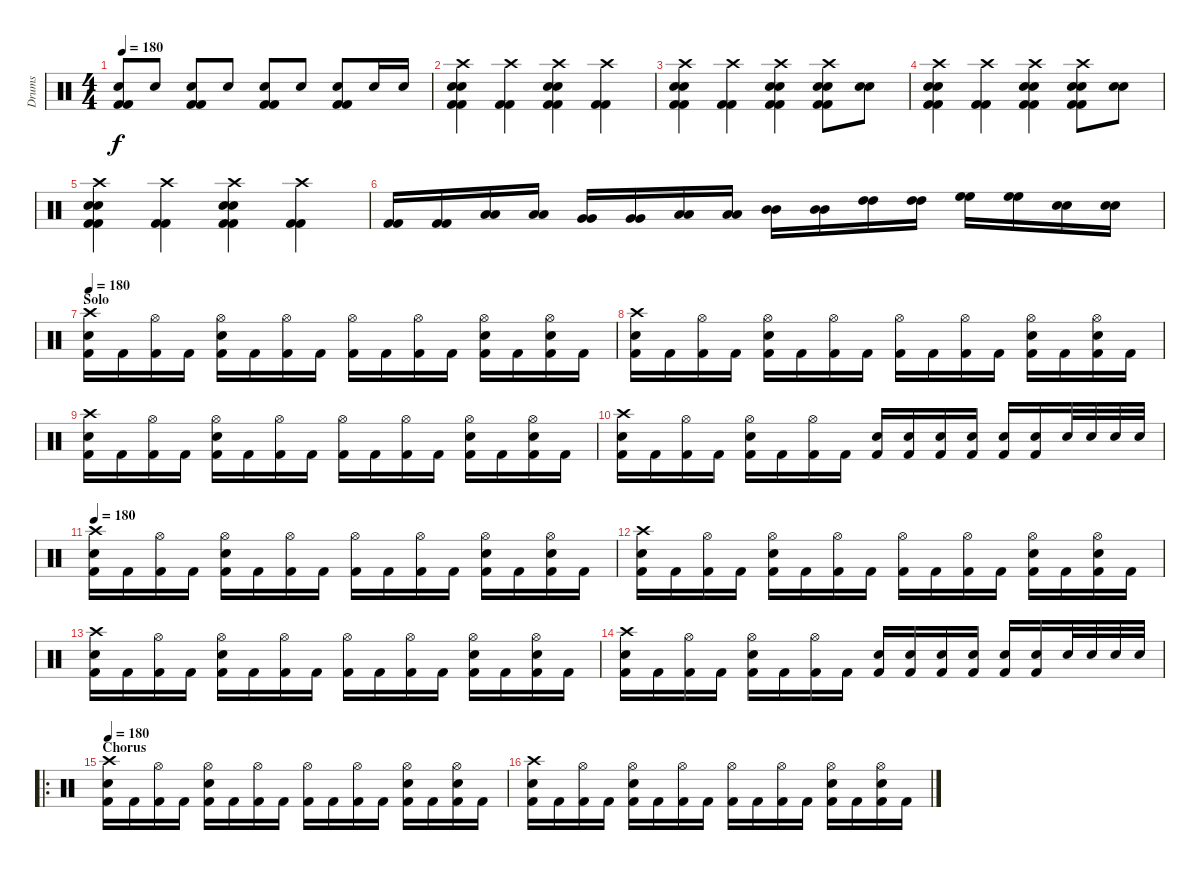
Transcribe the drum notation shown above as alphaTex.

\track ("Drums" "Drums") {instrument percussion}
\staff {score}
\articulation defaults
\ts (4 4)
\tempo 180
\clef neutral
\ks c
("Snare (hit) 2" "Kick (hit) 2" "Kick (hit) 2").8{dy f} "Snare (hit) 2".8 ("Snare (hit) 2" "Kick (hit) 2" "Kick (hit) 2").8 "Snare (hit) 2".8 ("Snare (hit) 2" "Kick (hit) 2" "Kick (hit) 2").8 "Snare (hit) 2".8 ("Snare (hit) 2" "Kick (hit) 2" "Kick (hit) 2").8 "Snare (hit) 2".16 "Snare (hit) 2".16 |
("Crash high (hit)" "Snare (hit) 2" "Snare (hit) 2" "Kick (hit) 2" "Kick (hit) 2").4 ("Crash high (hit)" "Kick (hit) 2" "Kick (hit) 2").4 ("Crash high (hit)" "Snare (hit) 2" "Snare (hit) 2" "Kick (hit) 2" "Kick (hit) 2").4 ("Crash high (hit)" "Kick (hit) 2" "Kick (hit) 2").4 |
("Crash high (hit)" "Snare (hit) 2" "Snare (hit) 2" "Kick (hit) 2" "Kick (hit) 2").4 ("Crash high (hit)" "Kick (hit) 2" "Kick (hit) 2").4 ("Crash high (hit)" "Snare (hit) 2" "Snare (hit) 2" "Kick (hit) 2" "Kick (hit) 2").4 ("Crash high (hit)" "Snare (hit) 2" "Snare (hit) 2" "Kick (hit) 2" "Kick (hit) 2").8 ("Snare (hit) 2" "Snare (hit) 2").8 |
("Crash high (hit)" "Snare (hit) 2" "Snare (hit) 2" "Kick (hit) 2" "Kick (hit) 2").4 ("Crash high (hit)" "Kick (hit) 2" "Kick (hit) 2").4 ("Crash high (hit)" "Snare (hit) 2" "Snare (hit) 2" "Kick (hit) 2" "Kick (hit) 2").4 ("Crash high (hit)" "Snare (hit) 2" "Snare (hit) 2" "Kick (hit) 2" "Kick (hit) 2").8 ("Snare (hit) 2" "Snare (hit) 2").8 |
("Crash high (hit)" "Snare (hit) 2" "Snare (hit) 2" "Kick (hit) 2" "Kick (hit) 2").4 ("Crash high (hit)" "Kick (hit) 2" "Kick (hit) 2").4 ("Crash high (hit)" "Snare (hit) 2" "Snare (hit) 2" "Kick (hit) 2" "Kick (hit) 2").4 ("Crash high (hit)" "Kick (hit) 2" "Kick (hit) 2").4 |
("Kick (hit) 2" "Kick (hit) 2").16 ("Kick (hit) 2" "Kick (hit) 2").16 ("Low Floor Tom (hit)" "Low Floor Tom (hit)").16 ("Low Floor Tom (hit)" "Low Floor Tom (hit)").16 ("Very Low Tom (hit)" "Very Low Tom (hit)").16 ("Very Low Tom (hit)" "Very Low Tom (hit)").16 ("Low Tom (hit)" "Low Tom (hit)").16 ("Low Tom (hit)" "Low Tom (hit)").16 ("Mid Tom (hit)" "Mid Tom (hit)").16 ("Mid Tom (hit)" "Mid Tom (hit)").16 ("High Tom (hit)" "High Tom (hit)").16 ("High Tom (hit)" "High Tom (hit)").16 ("High Floor Tom (hit)" "High Floor Tom (hit)").16 ("High Floor Tom (hit)" "High Floor Tom (hit)").16 ("Snare (hit) 2" "Snare (hit) 2").16 ("Snare (hit) 2" "Snare (hit) 2").16 |
\section ("" "Solo")
\tempo 180
("Crash high (hit)" "Snare (hit) 2" "Kick (hit) 2").16 "Kick (hit) 2".16 ("Hi-Hat (open)" "Kick (hit) 2").16 "Kick (hit) 2".16 ("Hi-Hat (open)" "Snare (hit) 2" "Kick (hit) 2").16 "Kick (hit) 2".16 ("Hi-Hat (open)" "Kick (hit) 2").16 "Kick (hit) 2".16 ("Hi-Hat (open)" "Kick (hit) 2").16 "Kick (hit) 2".16 ("Hi-Hat (open)" "Kick (hit) 2").16 "Kick (hit) 2".16 ("Hi-Hat (open)" "Snare (hit) 2" "Kick (hit) 2").16 "Kick (hit) 2".16 ("Hi-Hat (open)" "Snare (hit) 2" "Kick (hit) 2").16 "Kick (hit) 2".16 |
("Crash high (hit)" "Snare (hit) 2" "Kick (hit) 2").16 "Kick (hit) 2".16 ("Hi-Hat (open)" "Kick (hit) 2").16 "Kick (hit) 2".16 ("Hi-Hat (open)" "Snare (hit) 2" "Kick (hit) 2").16 "Kick (hit) 2".16 ("Hi-Hat (open)" "Kick (hit) 2").16 "Kick (hit) 2".16 ("Hi-Hat (open)" "Kick (hit) 2").16 "Kick (hit) 2".16 ("Hi-Hat (open)" "Kick (hit) 2").16 "Kick (hit) 2".16 ("Hi-Hat (open)" "Snare (hit) 2" "Kick (hit) 2").16 "Kick (hit) 2".16 ("Hi-Hat (open)" "Snare (hit) 2" "Kick (hit) 2").16 "Kick (hit) 2".16 |
("Crash high (hit)" "Snare (hit) 2" "Kick (hit) 2").16 "Kick (hit) 2".16 ("Hi-Hat (open)" "Kick (hit) 2").16 "Kick (hit) 2".16 ("Hi-Hat (open)" "Snare (hit) 2" "Kick (hit) 2").16 "Kick (hit) 2".16 ("Hi-Hat (open)" "Kick (hit) 2").16 "Kick (hit) 2".16 ("Hi-Hat (open)" "Kick (hit) 2").16 "Kick (hit) 2".16 ("Hi-Hat (open)" "Kick (hit) 2").16 "Kick (hit) 2".16 ("Hi-Hat (open)" "Snare (hit) 2" "Kick (hit) 2").16 "Kick (hit) 2".16 ("Hi-Hat (open)" "Snare (hit) 2" "Kick (hit) 2").16 "Kick (hit) 2".16 |
("Crash high (hit)" "Snare (hit) 2" "Kick (hit) 2").16 "Kick (hit) 2".16 ("Hi-Hat (open)" "Kick (hit) 2").16 "Kick (hit) 2".16 ("Hi-Hat (open)" "Snare (hit) 2" "Kick (hit) 2").16 "Kick (hit) 2".16 ("Hi-Hat (open)" "Kick (hit) 2").16 "Kick (hit) 2".16 ("Snare (hit) 2" "Kick (hit) 2").16 ("Snare (hit) 2" "Kick (hit) 2").16 ("Snare (hit) 2" "Kick (hit) 2").16 ("Snare (hit) 2" "Kick (hit) 2").16 ("Snare (hit) 2" "Kick (hit) 2").16 ("Snare (hit) 2" "Kick (hit) 2").16 "Snare (hit) 2".32 "Snare (hit) 2".32 "Snare (hit) 2".32 "Snare (hit) 2".32 |
\tempo 180
("Crash high (hit)" "Snare (hit) 2" "Kick (hit) 2").16 "Kick (hit) 2".16 ("Hi-Hat (open)" "Kick (hit) 2").16 "Kick (hit) 2".16 ("Hi-Hat (open)" "Snare (hit) 2" "Kick (hit) 2").16 "Kick (hit) 2".16 ("Hi-Hat (open)" "Kick (hit) 2").16 "Kick (hit) 2".16 ("Hi-Hat (open)" "Kick (hit) 2").16 "Kick (hit) 2".16 ("Hi-Hat (open)" "Kick (hit) 2").16 "Kick (hit) 2".16 ("Hi-Hat (open)" "Snare (hit) 2" "Kick (hit) 2").16 "Kick (hit) 2".16 ("Hi-Hat (open)" "Snare (hit) 2" "Kick (hit) 2").16 "Kick (hit) 2".16 |
("Crash high (hit)" "Snare (hit) 2" "Kick (hit) 2").16 "Kick (hit) 2".16 ("Hi-Hat (open)" "Kick (hit) 2").16 "Kick (hit) 2".16 ("Hi-Hat (open)" "Snare (hit) 2" "Kick (hit) 2").16 "Kick (hit) 2".16 ("Hi-Hat (open)" "Kick (hit) 2").16 "Kick (hit) 2".16 ("Hi-Hat (open)" "Kick (hit) 2").16 "Kick (hit) 2".16 ("Hi-Hat (open)" "Kick (hit) 2").16 "Kick (hit) 2".16 ("Hi-Hat (open)" "Snare (hit) 2" "Kick (hit) 2").16 "Kick (hit) 2".16 ("Hi-Hat (open)" "Snare (hit) 2" "Kick (hit) 2").16 "Kick (hit) 2".16 |
("Crash high (hit)" "Snare (hit) 2" "Kick (hit) 2").16 "Kick (hit) 2".16 ("Hi-Hat (open)" "Kick (hit) 2").16 "Kick (hit) 2".16 ("Hi-Hat (open)" "Snare (hit) 2" "Kick (hit) 2").16 "Kick (hit) 2".16 ("Hi-Hat (open)" "Kick (hit) 2").16 "Kick (hit) 2".16 ("Hi-Hat (open)" "Kick (hit) 2").16 "Kick (hit) 2".16 ("Hi-Hat (open)" "Kick (hit) 2").16 "Kick (hit) 2".16 ("Hi-Hat (open)" "Snare (hit) 2" "Kick (hit) 2").16 "Kick (hit) 2".16 ("Hi-Hat (open)" "Snare (hit) 2" "Kick (hit) 2").16 "Kick (hit) 2".16 |
("Crash high (hit)" "Snare (hit) 2" "Kick (hit) 2").16 "Kick (hit) 2".16 ("Hi-Hat (open)" "Kick (hit) 2").16 "Kick (hit) 2".16 ("Hi-Hat (open)" "Snare (hit) 2" "Kick (hit) 2").16 "Kick (hit) 2".16 ("Hi-Hat (open)" "Kick (hit) 2").16 "Kick (hit) 2".16 ("Snare (hit) 2" "Kick (hit) 2").16 ("Snare (hit) 2" "Kick (hit) 2").16 ("Snare (hit) 2" "Kick (hit) 2").16 ("Snare (hit) 2" "Kick (hit) 2").16 ("Snare (hit) 2" "Kick (hit) 2").16 ("Snare (hit) 2" "Kick (hit) 2").16 "Snare (hit) 2".32 "Snare (hit) 2".32 "Snare (hit) 2".32 "Snare (hit) 2".32 |
\ro
\section ("" "Chorus")
\tempo 180
("Crash high (hit)" "Snare (hit) 2" "Kick (hit) 2").16 "Kick (hit) 2".16 ("Hi-Hat (open)" "Kick (hit) 2").16 "Kick (hit) 2".16 ("Hi-Hat (open)" "Snare (hit) 2" "Kick (hit) 2").16 "Kick (hit) 2".16 ("Hi-Hat (open)" "Kick (hit) 2").16 "Kick (hit) 2".16 ("Hi-Hat (open)" "Kick (hit) 2").16 "Kick (hit) 2".16 ("Hi-Hat (open)" "Kick (hit) 2").16 "Kick (hit) 2".16 ("Hi-Hat (open)" "Snare (hit) 2" "Kick (hit) 2").16 "Kick (hit) 2".16 ("Hi-Hat (open)" "Snare (hit) 2" "Kick (hit) 2").16 "Kick (hit) 2".16 |
("Crash high (hit)" "Snare (hit) 2" "Kick (hit) 2").16 "Kick (hit) 2".16 ("Hi-Hat (open)" "Kick (hit) 2").16 "Kick (hit) 2".16 ("Hi-Hat (open)" "Snare (hit) 2" "Kick (hit) 2").16 "Kick (hit) 2".16 ("Hi-Hat (open)" "Kick (hit) 2").16 "Kick (hit) 2".16 ("Hi-Hat (open)" "Kick (hit) 2").16 "Kick (hit) 2".16 ("Hi-Hat (open)" "Kick (hit) 2").16 "Kick (hit) 2".16 ("Hi-Hat (open)" "Snare (hit) 2" "Kick (hit) 2").16 "Kick (hit) 2".16 ("Hi-Hat (open)" "Snare (hit) 2" "Kick (hit) 2").16 "Kick (hit) 2".16
